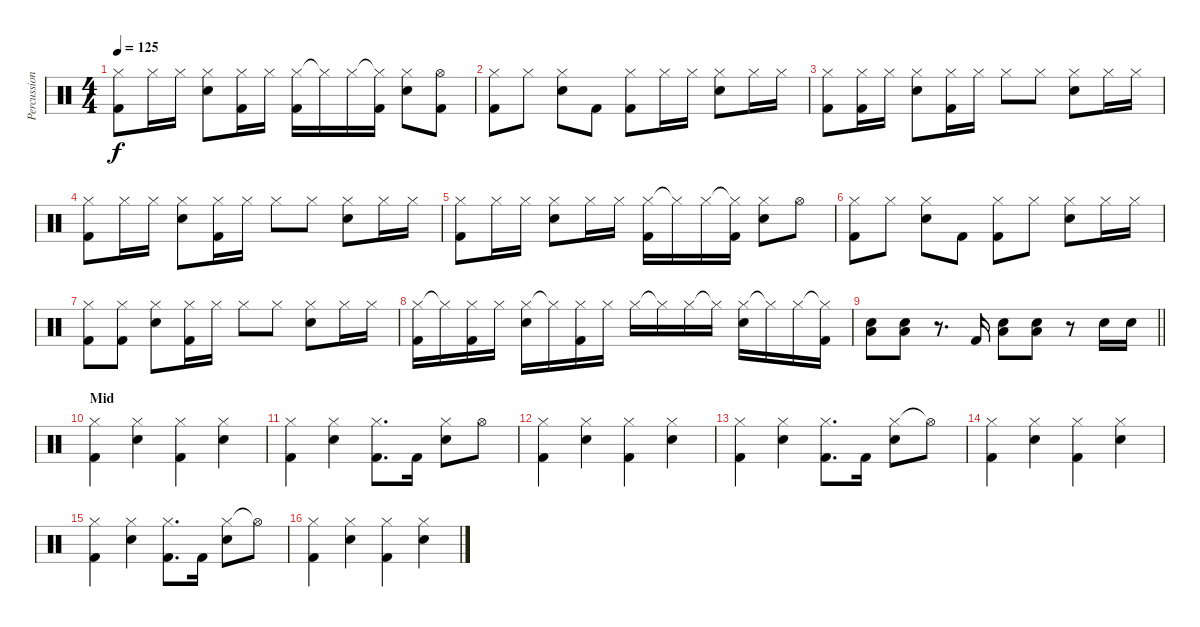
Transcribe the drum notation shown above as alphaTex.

\track ("Percussion" "Percussion") {instrument percussion}
\staff {score}
\articulation defaults
\ts (4 4)
\tempo 125
\clef neutral
\ks c
("Hi-Hat (closed)" "Kick (hit) 2").8{dy f} "Hi-Hat (closed)".16 "Hi-Hat (closed)".16 ("Hi-Hat (closed)" "Electric Snare (hit)").8 ("Hi-Hat (closed)" "Kick (hit) 2").16 "Hi-Hat (closed)".16 ("Hi-Hat (closed)" "Kick (hit) 2").16 "Hi-Hat (closed)"{t}.16 "Hi-Hat (closed)".16 ("Hi-Hat (closed)"{t} "Kick (hit) 2").16 ("Hi-Hat (closed)" "Electric Snare (hit)").8 ("Hi-Hat (open)" "Kick (hit) 2").8 |
("Hi-Hat (closed)" "Kick (hit) 2").8 "Hi-Hat (closed)".8 ("Hi-Hat (closed)" "Electric Snare (hit)").8 "Kick (hit) 2".8 ("Hi-Hat (closed)" "Kick (hit) 2").8 "Hi-Hat (closed)".16 "Hi-Hat (closed)".16 ("Hi-Hat (closed)" "Electric Snare (hit)").8 "Hi-Hat (closed)".16 "Hi-Hat (closed)".16 |
("Hi-Hat (closed)" "Kick (hit) 2").8 ("Hi-Hat (closed)" "Kick (hit) 2").16 "Hi-Hat (closed)".16 ("Hi-Hat (closed)" "Electric Snare (hit)").8 ("Hi-Hat (closed)" "Kick (hit) 2").16 "Hi-Hat (closed)".16 "Hi-Hat (closed)".8 "Hi-Hat (closed)".8 ("Hi-Hat (closed)" "Electric Snare (hit)").8 "Hi-Hat (closed)".16 "Hi-Hat (closed)".16 |
("Hi-Hat (closed)" "Kick (hit) 2").8 "Hi-Hat (closed)".16 "Hi-Hat (closed)".16 ("Hi-Hat (closed)" "Electric Snare (hit)").8 ("Hi-Hat (closed)" "Kick (hit) 2").16 "Hi-Hat (closed)".16 "Hi-Hat (closed)".8 "Hi-Hat (closed)".8 ("Hi-Hat (closed)" "Electric Snare (hit)").8 "Hi-Hat (closed)".16 "Hi-Hat (closed)".16 |
("Hi-Hat (closed)" "Kick (hit) 2").8 "Hi-Hat (closed)".16 "Hi-Hat (closed)".16 ("Hi-Hat (closed)" "Electric Snare (hit)").8 "Hi-Hat (closed)".16 "Hi-Hat (closed)".16 ("Hi-Hat (closed)" "Kick (hit) 2").16 "Hi-Hat (closed)"{t}.16 "Hi-Hat (closed)".16 ("Hi-Hat (closed)"{t} "Kick (hit) 2").16 ("Hi-Hat (closed)" "Electric Snare (hit)").8 "Hi-Hat (open)".8 |
("Hi-Hat (closed)" "Kick (hit) 2").8 "Hi-Hat (closed)".8 ("Hi-Hat (closed)" "Electric Snare (hit)").8 "Kick (hit) 2".8 ("Hi-Hat (closed)" "Kick (hit) 2").8 "Hi-Hat (closed)".8 ("Hi-Hat (closed)" "Electric Snare (hit)").8 "Hi-Hat (closed)".16 "Hi-Hat (closed)".16 |
("Hi-Hat (closed)" "Kick (hit) 2").8 ("Hi-Hat (closed)" "Kick (hit) 2").8 ("Hi-Hat (closed)" "Electric Snare (hit)").8 ("Hi-Hat (closed)" "Kick (hit) 2").16 "Hi-Hat (closed)".16 "Hi-Hat (closed)".8 "Hi-Hat (closed)".8 ("Hi-Hat (closed)" "Electric Snare (hit)").8 "Hi-Hat (closed)".16 "Hi-Hat (closed)".16 |
("Hi-Hat (closed)" "Kick (hit) 2").16 "Hi-Hat (closed)"{t}.16 ("Hi-Hat (closed)" "Kick (hit) 2").16 "Hi-Hat (closed)".16 ("Hi-Hat (closed)" "Electric Snare (hit)").16 "Hi-Hat (closed)"{t}.16 ("Hi-Hat (closed)" "Kick (hit) 2").16 "Hi-Hat (closed)".16 "Hi-Hat (closed)".16 "Hi-Hat (closed)"{t}.16 "Hi-Hat (closed)".16 "Hi-Hat (closed)"{t}.16 ("Hi-Hat (closed)" "Electric Snare (hit)").16 "Hi-Hat (closed)"{t}.16 "Hi-Hat (closed)".16 ("Hi-Hat (closed)"{t} "Kick (hit) 2").16 |
\barLineRight lightlight
("Electric Snare (hit)" "Low Tom (hit)").8 ("Electric Snare (hit)" "Low Tom (hit)").8 r.8{d} "Kick (hit) 2".16 ("Electric Snare (hit)" "Low Tom (hit)").8 ("Electric Snare (hit)" "Low Tom (hit)").8 r.8 "Electric Snare (hit)".16 "Electric Snare (hit)".16 |
\section ("" "Mid")
("Hi-Hat (closed)" "Kick (hit) 2").4 ("Hi-Hat (closed)" "Electric Snare (hit)").4 ("Hi-Hat (closed)" "Kick (hit) 2").4 ("Hi-Hat (closed)" "Electric Snare (hit)").4 |
("Hi-Hat (closed)" "Kick (hit) 2").4 ("Hi-Hat (closed)" "Electric Snare (hit)").4 ("Hi-Hat (closed)" "Kick (hit) 2").8{d} "Kick (hit) 2".16 ("Hi-Hat (closed)" "Electric Snare (hit)").8 "Hi-Hat (open)".8 |
("Hi-Hat (closed)" "Kick (hit) 2").4 ("Hi-Hat (closed)" "Electric Snare (hit)").4 ("Hi-Hat (closed)" "Kick (hit) 2").4 ("Hi-Hat (closed)" "Electric Snare (hit)").4 |
("Hi-Hat (closed)" "Kick (hit) 2").4 ("Hi-Hat (closed)" "Electric Snare (hit)").4 ("Hi-Hat (closed)" "Kick (hit) 2").8{d} "Kick (hit) 2".16 ("Hi-Hat (closed)" "Electric Snare (hit)").8 "Hi-Hat (open)"{t}.8 |
("Hi-Hat (closed)" "Kick (hit) 2").4 ("Hi-Hat (closed)" "Electric Snare (hit)").4 ("Hi-Hat (closed)" "Kick (hit) 2").4 ("Hi-Hat (closed)" "Electric Snare (hit)").4 |
("Hi-Hat (closed)" "Kick (hit) 2").4 ("Hi-Hat (closed)" "Electric Snare (hit)").4 ("Hi-Hat (closed)" "Kick (hit) 2").8{d} "Kick (hit) 2".16 ("Hi-Hat (closed)" "Electric Snare (hit)").8 "Hi-Hat (open)"{t}.8 |
("Hi-Hat (closed)" "Kick (hit) 2").4 ("Hi-Hat (closed)" "Electric Snare (hit)").4 ("Hi-Hat (closed)" "Kick (hit) 2").4 ("Hi-Hat (closed)" "Electric Snare (hit)").4
